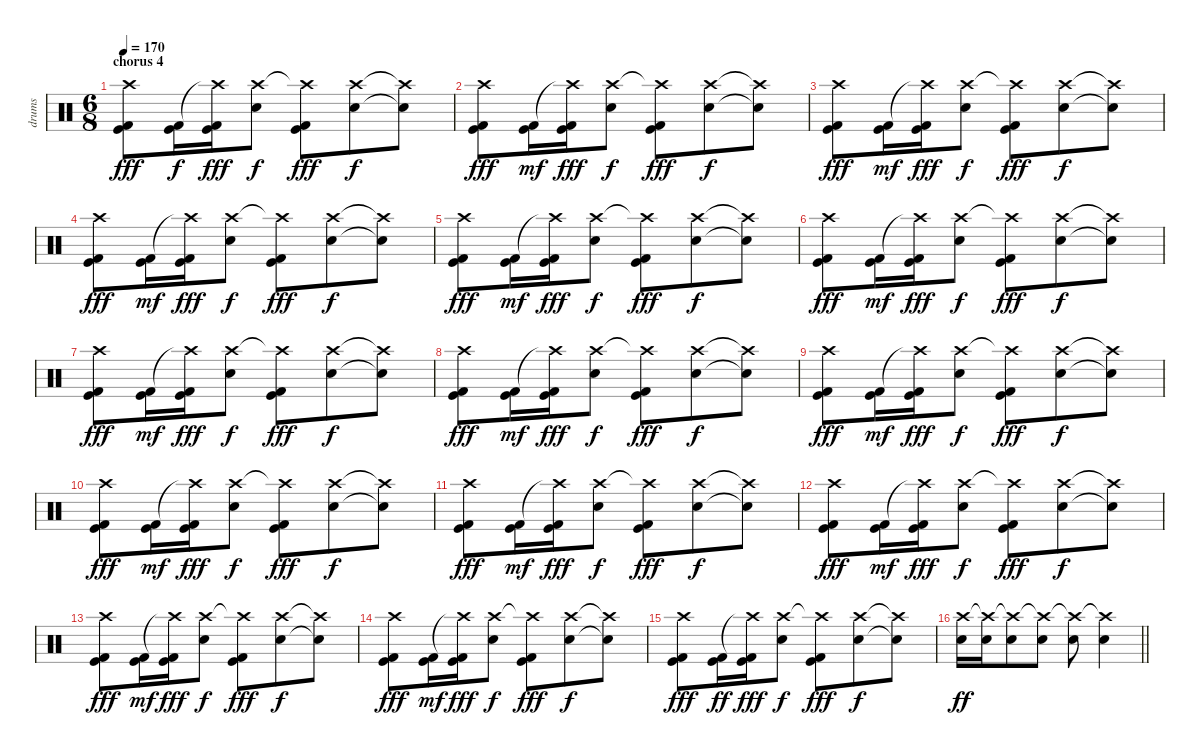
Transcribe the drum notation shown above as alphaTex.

\track ("drums " "drums ") {instrument percussion}
\staff {score}
\articulation defaults
\ts (6 8)
\section ("" "chorus 4")
\tempo 170
\clef neutral
\ks c
("Crash high (hit)" "Kick (hit) 2" "Kick (hit)").8{dy fff} ("Kick (hit) 2" "Kick (hit)").16{dy f} ("Crash high (hit)"{t} "Kick (hit) 2" "Kick (hit)").16{dy fff} ("Crash high (hit)" "Electric Snare (hit)").8{dy f} ("Crash high (hit)"{t} "Kick (hit) 2" "Kick (hit)").8{dy fff} ("Crash high (hit)" "Electric Snare (hit)").8{dy f} ("Crash high (hit)"{t} "Electric Snare (hit)"{t}).8 |
("Crash high (hit)" "Kick (hit) 2" "Kick (hit)").8{dy fff} ("Kick (hit) 2" "Kick (hit)").16{dy mf} ("Crash high (hit)"{t} "Kick (hit) 2" "Kick (hit)").16{dy fff} ("Crash high (hit)" "Electric Snare (hit)").8{dy f} ("Crash high (hit)"{t} "Kick (hit) 2" "Kick (hit)").8{dy fff} ("Crash high (hit)" "Electric Snare (hit)").8{dy f} ("Crash high (hit)"{t} "Electric Snare (hit)"{t}).8 |
("Crash high (hit)" "Kick (hit) 2" "Kick (hit)").8{dy fff} ("Kick (hit) 2" "Kick (hit)").16{dy mf} ("Crash high (hit)"{t} "Kick (hit) 2" "Kick (hit)").16{dy fff} ("Crash high (hit)" "Electric Snare (hit)").8{dy f} ("Crash high (hit)"{t} "Kick (hit) 2" "Kick (hit)").8{dy fff} ("Crash high (hit)" "Electric Snare (hit)").8{dy f} ("Crash high (hit)"{t} "Electric Snare (hit)"{t}).8 |
("Crash high (hit)" "Kick (hit) 2" "Kick (hit)").8{dy fff} ("Kick (hit) 2" "Kick (hit)").16{dy mf} ("Crash high (hit)"{t} "Kick (hit) 2" "Kick (hit)").16{dy fff} ("Crash high (hit)" "Electric Snare (hit)").8{dy f} ("Crash high (hit)"{t} "Kick (hit) 2" "Kick (hit)").8{dy fff} ("Crash high (hit)" "Electric Snare (hit)").8{dy f} ("Crash high (hit)"{t} "Electric Snare (hit)"{t}).8 |
("Crash high (hit)" "Kick (hit) 2" "Kick (hit)").8{dy fff} ("Kick (hit) 2" "Kick (hit)").16{dy mf} ("Crash high (hit)"{t} "Kick (hit) 2" "Kick (hit)").16{dy fff} ("Crash high (hit)" "Electric Snare (hit)").8{dy f} ("Crash high (hit)"{t} "Kick (hit) 2" "Kick (hit)").8{dy fff} ("Crash high (hit)" "Electric Snare (hit)").8{dy f} ("Crash high (hit)"{t} "Electric Snare (hit)"{t}).8 |
("Crash high (hit)" "Kick (hit) 2" "Kick (hit)").8{dy fff} ("Kick (hit) 2" "Kick (hit)").16{dy mf} ("Crash high (hit)"{t} "Kick (hit) 2" "Kick (hit)").16{dy fff} ("Crash high (hit)" "Electric Snare (hit)").8{dy f} ("Crash high (hit)"{t} "Kick (hit) 2" "Kick (hit)").8{dy fff} ("Crash high (hit)" "Electric Snare (hit)").8{dy f} ("Crash high (hit)"{t} "Electric Snare (hit)"{t}).8 |
("Crash high (hit)" "Kick (hit) 2" "Kick (hit)").8{dy fff} ("Kick (hit) 2" "Kick (hit)").16{dy mf} ("Crash high (hit)"{t} "Kick (hit) 2" "Kick (hit)").16{dy fff} ("Crash high (hit)" "Electric Snare (hit)").8{dy f} ("Crash high (hit)"{t} "Kick (hit) 2" "Kick (hit)").8{dy fff} ("Crash high (hit)" "Electric Snare (hit)").8{dy f} ("Crash high (hit)"{t} "Electric Snare (hit)"{t}).8 |
("Crash high (hit)" "Kick (hit) 2" "Kick (hit)").8{dy fff} ("Kick (hit) 2" "Kick (hit)").16{dy mf} ("Crash high (hit)"{t} "Kick (hit) 2" "Kick (hit)").16{dy fff} ("Crash high (hit)" "Electric Snare (hit)").8{dy f} ("Crash high (hit)"{t} "Kick (hit) 2" "Kick (hit)").8{dy fff} ("Crash high (hit)" "Electric Snare (hit)").8{dy f} ("Crash high (hit)"{t} "Electric Snare (hit)"{t}).8 |
("Crash high (hit)" "Kick (hit) 2" "Kick (hit)").8{dy fff} ("Kick (hit) 2" "Kick (hit)").16{dy mf} ("Crash high (hit)"{t} "Kick (hit) 2" "Kick (hit)").16{dy fff} ("Crash high (hit)" "Electric Snare (hit)").8{dy f} ("Crash high (hit)"{t} "Kick (hit) 2" "Kick (hit)").8{dy fff} ("Crash high (hit)" "Electric Snare (hit)").8{dy f} ("Crash high (hit)"{t} "Electric Snare (hit)"{t}).8 |
("Crash high (hit)" "Kick (hit) 2" "Kick (hit)").8{dy fff} ("Kick (hit) 2" "Kick (hit)").16{dy mf} ("Crash high (hit)"{t} "Kick (hit) 2" "Kick (hit)").16{dy fff} ("Crash high (hit)" "Electric Snare (hit)").8{dy f} ("Crash high (hit)"{t} "Kick (hit) 2" "Kick (hit)").8{dy fff} ("Crash high (hit)" "Electric Snare (hit)").8{dy f} ("Crash high (hit)"{t} "Electric Snare (hit)"{t}).8 |
("Crash high (hit)" "Kick (hit) 2" "Kick (hit)").8{dy fff} ("Kick (hit) 2" "Kick (hit)").16{dy mf} ("Crash high (hit)"{t} "Kick (hit) 2" "Kick (hit)").16{dy fff} ("Crash high (hit)" "Electric Snare (hit)").8{dy f} ("Crash high (hit)"{t} "Kick (hit) 2" "Kick (hit)").8{dy fff} ("Crash high (hit)" "Electric Snare (hit)").8{dy f} ("Crash high (hit)"{t} "Electric Snare (hit)"{t}).8 |
("Crash high (hit)" "Kick (hit) 2" "Kick (hit)").8{dy fff} ("Kick (hit) 2" "Kick (hit)").16{dy mf} ("Crash high (hit)"{t} "Kick (hit) 2" "Kick (hit)").16{dy fff} ("Crash high (hit)" "Electric Snare (hit)").8{dy f} ("Crash high (hit)"{t} "Kick (hit) 2" "Kick (hit)").8{dy fff} ("Crash high (hit)" "Electric Snare (hit)").8{dy f} ("Crash high (hit)"{t} "Electric Snare (hit)"{t}).8 |
("Crash high (hit)" "Kick (hit) 2" "Kick (hit)").8{dy fff} ("Kick (hit) 2" "Kick (hit)").16{dy mf} ("Crash high (hit)"{t} "Kick (hit) 2" "Kick (hit)").16{dy fff} ("Crash high (hit)" "Electric Snare (hit)").8{dy f} ("Crash high (hit)"{t} "Kick (hit) 2" "Kick (hit)").8{dy fff} ("Crash high (hit)" "Electric Snare (hit)").8{dy f} ("Crash high (hit)"{t} "Electric Snare (hit)"{t}).8 |
("Crash high (hit)" "Kick (hit) 2" "Kick (hit)").8{dy fff} ("Kick (hit) 2" "Kick (hit)").16{dy mf} ("Crash high (hit)"{t} "Kick (hit) 2" "Kick (hit)").16{dy fff} ("Crash high (hit)" "Electric Snare (hit)").8{dy f} ("Crash high (hit)"{t} "Kick (hit) 2" "Kick (hit)").8{dy fff} ("Crash high (hit)" "Electric Snare (hit)").8{dy f} ("Crash high (hit)"{t} "Electric Snare (hit)"{t}).8 |
("Crash high (hit)" "Kick (hit) 2" "Kick (hit)").8{dy fff} ("Kick (hit) 2" "Kick (hit)").16{dy ff} ("Crash high (hit)"{t} "Kick (hit) 2" "Kick (hit)").16{dy fff} ("Crash high (hit)" "Electric Snare (hit)").8{dy f} ("Crash high (hit)"{t} "Kick (hit) 2" "Kick (hit)").8{dy fff} ("Crash high (hit)" "Electric Snare (hit)").8{dy f} ("Crash high (hit)"{t} "Electric Snare (hit)"{t}).8 |
\barLineRight lightlight
("Crash high (hit)" "Electric Snare (hit)").16{dy ff} ("Crash high (hit)"{t} "Electric Snare (hit)").16 ("Crash high (hit)"{t} "Electric Snare (hit)").8 ("Crash high (hit)"{t} "Electric Snare (hit)").8 ("Crash high (hit)"{t} "Electric Snare (hit)").8 ("Crash high (hit)"{t} "Electric Snare (hit)").4
